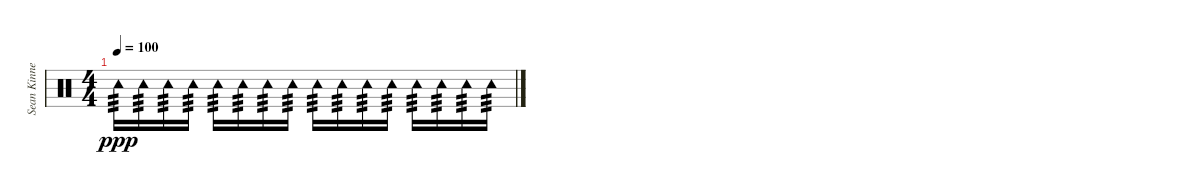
\track ("Sean Kinney" "Sean Kinne") {instrument percussion}
\staff {score}
\articulation defaults
\ts (4 4)
\tempo 100
\clef neutral
\ks c "Tambourine (hit)".16{tp 3 dy ppp volume 0} "Tambourine (hit)".16{tp 3} "Tambourine (hit)".16{tp 3} "Tambourine (hit)".16{tp 3} "Tambourine (hit)".16{tp 3} "Tambourine (hit)".16{tp 3} "Tambourine (hit)".16{tp 3} "Tambourine (hit)".16{tp 3} "Tambourine (hit)".16{tp 3} "Tambourine (hit)".16{tp 3} "Tambourine (hit)".16{tp 3} "Tambourine (hit)".16{tp 3} "Tambourine (hit)".16{tp 3} "Tambourine (hit)".16{tp 3} "Tambourine (hit)".16{tp 3} "Tambourine (hit)".16{tp 3}
